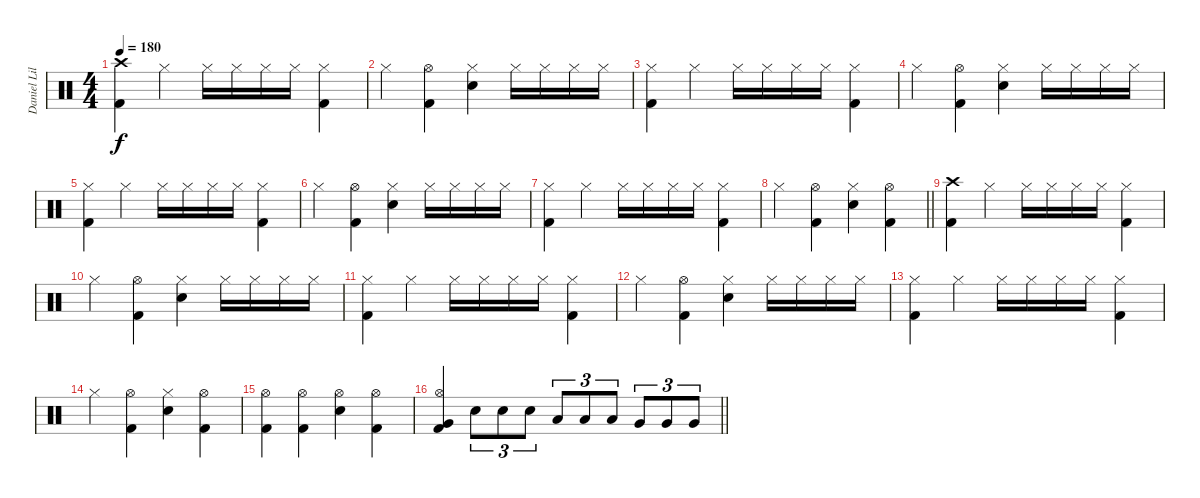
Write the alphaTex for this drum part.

\track ("Daniel Liljekvist" "Daniel Lil") {instrument percussion}
\staff {score}
\articulation defaults
\ts (4 4)
\tempo 180
\clef neutral
\ks c
("Crash high (hit)" "Kick (hit) 2").4{dy f} "Hi-Hat (closed)".4 "Hi-Hat (closed)".16 "Hi-Hat (closed)".16 "Hi-Hat (closed)".16 "Hi-Hat (closed)".16 ("Hi-Hat (closed)" "Kick (hit) 2").4 |
"Hi-Hat (closed)".4 ("Hi-Hat (open)" "Kick (hit) 2").4 ("Hi-Hat (closed)" "Electric Snare (hit)").4 "Hi-Hat (closed)".16 "Hi-Hat (closed)".16 "Hi-Hat (closed)".16 "Hi-Hat (closed)".16 |
("Hi-Hat (closed)" "Kick (hit) 2").4 "Hi-Hat (closed)".4 "Hi-Hat (closed)".16 "Hi-Hat (closed)".16 "Hi-Hat (closed)".16 "Hi-Hat (closed)".16 ("Hi-Hat (closed)" "Kick (hit) 2").4 |
"Hi-Hat (closed)".4 ("Hi-Hat (open)" "Kick (hit) 2").4 ("Hi-Hat (closed)" "Electric Snare (hit)").4 "Hi-Hat (closed)".16 "Hi-Hat (closed)".16 "Hi-Hat (closed)".16 "Hi-Hat (closed)".16 |
("Hi-Hat (closed)" "Kick (hit) 2").4 "Hi-Hat (closed)".4 "Hi-Hat (closed)".16 "Hi-Hat (closed)".16 "Hi-Hat (closed)".16 "Hi-Hat (closed)".16 ("Hi-Hat (closed)" "Kick (hit) 2").4 |
"Hi-Hat (closed)".4 ("Hi-Hat (open)" "Kick (hit) 2").4 ("Hi-Hat (closed)" "Electric Snare (hit)").4 "Hi-Hat (closed)".16 "Hi-Hat (closed)".16 "Hi-Hat (closed)".16 "Hi-Hat (closed)".16 |
("Hi-Hat (closed)" "Kick (hit) 2").4 "Hi-Hat (closed)".4 "Hi-Hat (closed)".16 "Hi-Hat (closed)".16 "Hi-Hat (closed)".16 "Hi-Hat (closed)".16 ("Hi-Hat (closed)" "Kick (hit) 2").4 |
\barLineRight lightlight "Hi-Hat (closed)".4
("Hi-Hat (open)" "Kick (hit) 2").4 ("Hi-Hat (closed)" "Electric Snare (hit)").4 ("Hi-Hat (open)" "Kick (hit) 2").4 |
("Crash high (hit)" "Kick (hit) 2").4 "Hi-Hat (closed)".4 "Hi-Hat (closed)".16 "Hi-Hat (closed)".16 "Hi-Hat (closed)".16 "Hi-Hat (closed)".16 ("Hi-Hat (closed)" "Kick (hit) 2").4 |
"Hi-Hat (closed)".4 ("Hi-Hat (open)" "Kick (hit) 2").4 ("Hi-Hat (closed)" "Electric Snare (hit)").4 "Hi-Hat (closed)".16 "Hi-Hat (closed)".16 "Hi-Hat (closed)".16 "Hi-Hat (closed)".16 |
("Hi-Hat (closed)" "Kick (hit) 2").4 "Hi-Hat (closed)".4 "Hi-Hat (closed)".16 "Hi-Hat (closed)".16 "Hi-Hat (closed)".16 "Hi-Hat (closed)".16 ("Hi-Hat (closed)" "Kick (hit) 2").4 |
"Hi-Hat (closed)".4 ("Hi-Hat (open)" "Kick (hit) 2").4 ("Hi-Hat (closed)" "Electric Snare (hit)").4 "Hi-Hat (closed)".16 "Hi-Hat (closed)".16 "Hi-Hat (closed)".16 "Hi-Hat (closed)".16 |
("Hi-Hat (closed)" "Kick (hit) 2").4 "Hi-Hat (closed)".4 "Hi-Hat (closed)".16 "Hi-Hat (closed)".16 "Hi-Hat (closed)".16 "Hi-Hat (closed)".16 ("Hi-Hat (closed)" "Kick (hit) 2").4 |
"Hi-Hat (closed)".4 ("Hi-Hat (open)" "Kick (hit) 2").4 ("Hi-Hat (closed)" "Electric Snare (hit)").4 ("Hi-Hat (open)" "Kick (hit) 2").4 |
("Hi-Hat (open)" "Kick (hit) 2").4 ("Hi-Hat (open)" "Kick (hit) 2").4 ("Hi-Hat (open)" "Electric Snare (hit)").4 ("Hi-Hat (open)" "Kick (hit) 2").4 |
\barLineRight lightlight
("Hi-Hat (open)" "Very Low Tom (hit)" "Kick (hit) 2").4 "Electric Snare (hit)".8{tu (3 2)} "Electric Snare (hit)".8{tu (3 2)} "Electric Snare (hit)".8{tu (3 2)} "Low Tom (hit)".8{tu (3 2)} "Low Tom (hit)".8{tu (3 2)} "Low Tom (hit)".8{tu (3 2)} "Very Low Tom (hit)".8{tu (3 2)} "Very Low Tom (hit)".8{tu (3 2)} "Very Low Tom (hit)".8{tu (3 2)}
